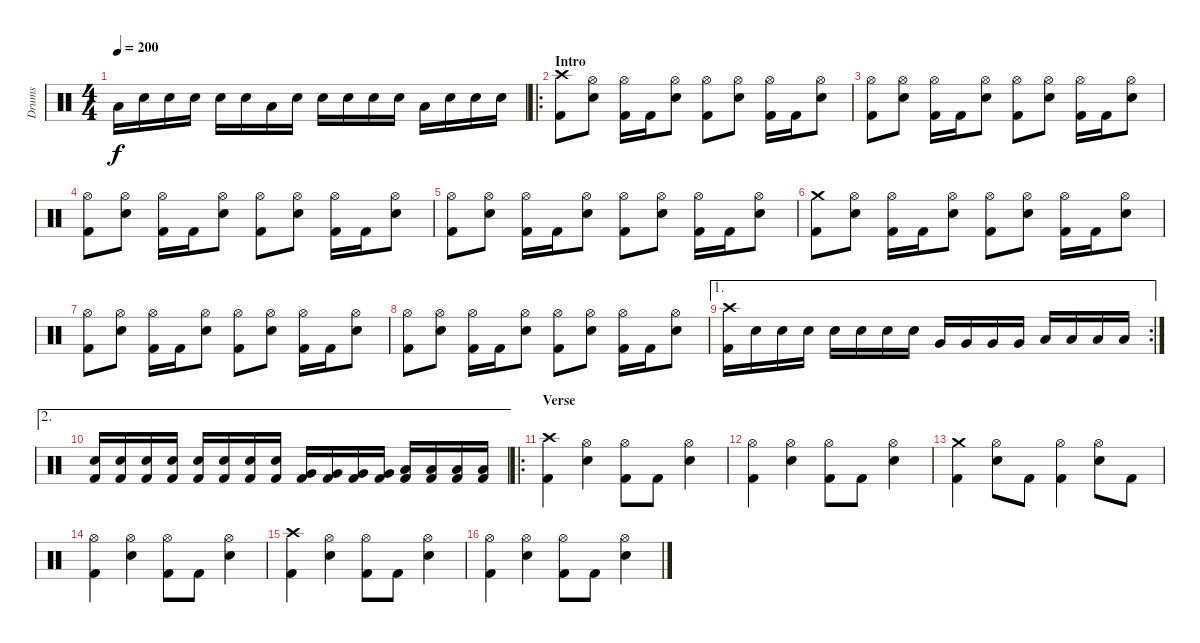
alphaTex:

\track ("Drums" "Drums") {instrument percussion}
\staff {score}
\articulation defaults
\ts (4 4)
\tempo 200
\clef neutral
\ks c "Low Tom (hit)".16{dy f} "Electric Snare (hit)".16 "Electric Snare (hit)".16 "Electric Snare (hit)".16 "Electric Snare (hit)".16 "Electric Snare (hit)".16 "Low Tom (hit)".16 "Electric Snare (hit)".16 "Electric Snare (hit)".16 "Electric Snare (hit)".16 "Electric Snare (hit)".16 "Electric Snare (hit)".16 "Low Tom (hit)".16 "Electric Snare (hit)".16 "Electric Snare (hit)".16 "Electric Snare (hit)".16
|
\ro
\section ("" "Intro")
("Crash high (hit)" "Kick (hit) 2").8 ("Hi-Hat (open)" "Electric Snare (hit)").8 ("Hi-Hat (open)" "Kick (hit) 2").16 "Kick (hit) 2".16 ("Hi-Hat (open)" "Electric Snare (hit)").8 ("Hi-Hat (open)" "Kick (hit) 2").8 ("Hi-Hat (open)" "Electric Snare (hit)").8 ("Hi-Hat (open)" "Kick (hit) 2").16 "Kick (hit) 2".16 ("Hi-Hat (open)" "Electric Snare (hit)").8 |
("Hi-Hat (open)" "Kick (hit) 2").8 ("Hi-Hat (open)" "Electric Snare (hit)").8 ("Hi-Hat (open)" "Kick (hit) 2").16 "Kick (hit) 2".16 ("Hi-Hat (open)" "Electric Snare (hit)").8 ("Hi-Hat (open)" "Kick (hit) 2").8 ("Hi-Hat (open)" "Electric Snare (hit)").8 ("Hi-Hat (open)" "Kick (hit) 2").16 "Kick (hit) 2".16 ("Hi-Hat (open)" "Electric Snare (hit)").8 |
("Hi-Hat (open)" "Kick (hit) 2").8 ("Hi-Hat (open)" "Electric Snare (hit)").8 ("Hi-Hat (open)" "Kick (hit) 2").16 "Kick (hit) 2".16 ("Hi-Hat (open)" "Electric Snare (hit)").8 ("Hi-Hat (open)" "Kick (hit) 2").8 ("Hi-Hat (open)" "Electric Snare (hit)").8 ("Hi-Hat (open)" "Kick (hit) 2").16 "Kick (hit) 2".16 ("Hi-Hat (open)" "Electric Snare (hit)").8 |
("Hi-Hat (open)" "Kick (hit) 2").8 ("Hi-Hat (open)" "Electric Snare (hit)").8 ("Hi-Hat (open)" "Kick (hit) 2").16 "Kick (hit) 2".16 ("Hi-Hat (open)" "Electric Snare (hit)").8 ("Hi-Hat (open)" "Kick (hit) 2").8 ("Hi-Hat (open)" "Electric Snare (hit)").8 ("Hi-Hat (open)" "Kick (hit) 2").16 "Kick (hit) 2".16 ("Hi-Hat (open)" "Electric Snare (hit)").8 |
("Crash medium (hit)" "Kick (hit) 2").8 ("Hi-Hat (open)" "Electric Snare (hit)").8 ("Hi-Hat (open)" "Kick (hit) 2").16 "Kick (hit) 2".16 ("Hi-Hat (open)" "Electric Snare (hit)").8 ("Hi-Hat (open)" "Kick (hit) 2").8 ("Hi-Hat (open)" "Electric Snare (hit)").8 ("Hi-Hat (open)" "Kick (hit) 2").16 "Kick (hit) 2".16 ("Hi-Hat (open)" "Electric Snare (hit)").8 |
("Hi-Hat (open)" "Kick (hit) 2").8 ("Hi-Hat (open)" "Electric Snare (hit)").8 ("Hi-Hat (open)" "Kick (hit) 2").16 "Kick (hit) 2".16 ("Hi-Hat (open)" "Electric Snare (hit)").8 ("Hi-Hat (open)" "Kick (hit) 2").8 ("Hi-Hat (open)" "Electric Snare (hit)").8 ("Hi-Hat (open)" "Kick (hit) 2").16 "Kick (hit) 2".16 ("Hi-Hat (open)" "Electric Snare (hit)").8 |
("Hi-Hat (open)" "Kick (hit) 2").8 ("Hi-Hat (open)" "Electric Snare (hit)").8 ("Hi-Hat (open)" "Kick (hit) 2").16 "Kick (hit) 2".16 ("Hi-Hat (open)" "Electric Snare (hit)").8 ("Hi-Hat (open)" "Kick (hit) 2").8 ("Hi-Hat (open)" "Electric Snare (hit)").8 ("Hi-Hat (open)" "Kick (hit) 2").16 "Kick (hit) 2".16 ("Hi-Hat (open)" "Electric Snare (hit)").8 |
\ae 1
\rc 2
("Crash high (hit)" "Kick (hit) 2").16 "Electric Snare (hit)".16 "Electric Snare (hit)".16 "Electric Snare (hit)".16 "Electric Snare (hit)".16 "Electric Snare (hit)".16 "Electric Snare (hit)".16 "Electric Snare (hit)".16 "Very Low Tom (hit)".16 "Very Low Tom (hit)".16 "Very Low Tom (hit)".16 "Very Low Tom (hit)".16 "Low Floor Tom (hit)".16 "Low Floor Tom (hit)".16 "Low Floor Tom (hit)".16 "Low Floor Tom (hit)".16 |
\ae 2
("Electric Snare (hit)" "Kick (hit) 2").16 ("Electric Snare (hit)" "Kick (hit) 2").16 ("Electric Snare (hit)" "Kick (hit) 2").16 ("Electric Snare (hit)" "Kick (hit) 2").16 ("Electric Snare (hit)" "Kick (hit) 2").16 ("Electric Snare (hit)" "Kick (hit) 2").16 ("Electric Snare (hit)" "Kick (hit) 2").16 ("Electric Snare (hit)" "Kick (hit) 2").16 ("Very Low Tom (hit)" "Kick (hit) 2").16 ("Very Low Tom (hit)" "Kick (hit) 2").16 ("Very Low Tom (hit)" "Kick (hit) 2").16 ("Very Low Tom (hit)" "Kick (hit) 2").16 ("Low Floor Tom (hit)" "Kick (hit) 2").16 ("Low Floor Tom (hit)" "Kick (hit) 2").16 ("Low Floor Tom (hit)" "Kick (hit) 2").16 ("Low Floor Tom (hit)" "Kick (hit) 2").16 |
\ro
\section ("" "Verse")
("Crash high (hit)" "Kick (hit) 2").4 ("Hi-Hat (open)" "Electric Snare (hit)").4 ("Hi-Hat (open)" "Kick (hit) 2").8 "Kick (hit) 2".8 ("Hi-Hat (open)" "Electric Snare (hit)").4 |
("Hi-Hat (open)" "Kick (hit) 2").4 ("Hi-Hat (open)" "Electric Snare (hit)").4 ("Hi-Hat (open)" "Kick (hit) 2").8 "Kick (hit) 2".8 ("Hi-Hat (open)" "Electric Snare (hit)").4 |
("Crash medium (hit)" "Kick (hit) 2").4 ("Hi-Hat (open)" "Electric Snare (hit)").8 "Kick (hit) 2".8 ("Hi-Hat (open)" "Kick (hit) 2").4 ("Hi-Hat (open)" "Electric Snare (hit)").8 "Kick (hit) 2".8 |
("Hi-Hat (open)" "Kick (hit) 2").4 ("Hi-Hat (open)" "Electric Snare (hit)").4 ("Hi-Hat (open)" "Kick (hit) 2").8 "Kick (hit) 2".8 ("Hi-Hat (open)" "Electric Snare (hit)").4 |
("Crash high (hit)" "Kick (hit) 2").4 ("Hi-Hat (open)" "Electric Snare (hit)").4 ("Hi-Hat (open)" "Kick (hit) 2").8 "Kick (hit) 2".8 ("Hi-Hat (open)" "Electric Snare (hit)").4 |
("Hi-Hat (open)" "Kick (hit) 2").4 ("Hi-Hat (open)" "Electric Snare (hit)").4 ("Hi-Hat (open)" "Kick (hit) 2").8 "Kick (hit) 2".8 ("Hi-Hat (open)" "Electric Snare (hit)").4
